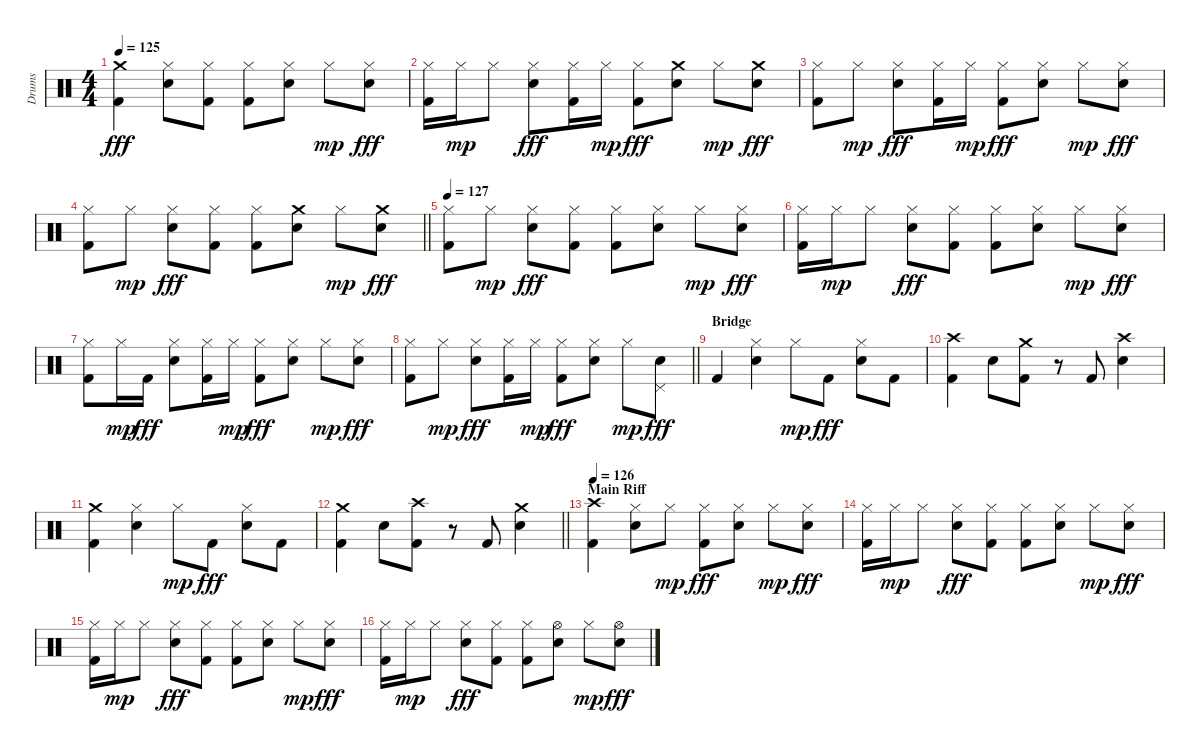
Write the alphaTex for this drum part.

\track ("Drums" "Drums") {instrument percussion}
\staff {score}
\articulation defaults
\ts (4 4)
\tempo 125
\clef neutral
\ks c
("Crash medium (hit)" "Kick (hit) 2").4{dy fff} ("Hi-Hat (closed)" "Electric Snare (hit)").8 ("Hi-Hat (closed)" "Kick (hit) 2").8 ("Hi-Hat (closed)" "Kick (hit) 2").8 ("Hi-Hat (closed)" "Electric Snare (hit)").8 "Hi-Hat (closed)".8{dy mp} ("Hi-Hat (closed)" "Electric Snare (hit)").8{dy fff} |
("Hi-Hat (closed)" "Kick (hit) 2").16 "Hi-Hat (closed)".16{dy mp} "Hi-Hat (closed)".8 ("Hi-Hat (closed)" "Electric Snare (hit)").8{dy fff} ("Hi-Hat (closed)" "Kick (hit) 2").16 "Hi-Hat (closed)".16{dy mp} ("Hi-Hat (closed)" "Kick (hit) 2").8{dy fff} ("Crash medium (hit)" "Electric Snare (hit)").8 "Hi-Hat (closed)".8{dy mp} ("Crash medium (hit)" "Electric Snare (hit)").8{dy fff} |
("Hi-Hat (closed)" "Kick (hit) 2").8 "Hi-Hat (closed)".8{dy mp} ("Hi-Hat (closed)" "Electric Snare (hit)").8{dy fff} ("Hi-Hat (closed)" "Kick (hit) 2").16 "Hi-Hat (closed)".16{dy mp} ("Hi-Hat (closed)" "Kick (hit) 2").8{dy fff} ("Hi-Hat (closed)" "Electric Snare (hit)").8 "Hi-Hat (closed)".8{dy mp} ("Hi-Hat (closed)" "Electric Snare (hit)").8{dy fff} |
\barLineRight lightlight
("Hi-Hat (closed)" "Kick (hit) 2").8 "Hi-Hat (closed)".8{dy mp} ("Hi-Hat (closed)" "Electric Snare (hit)").8{dy fff} ("Hi-Hat (closed)" "Kick (hit) 2").8 ("Hi-Hat (closed)" "Kick (hit) 2").8 ("Crash medium (hit)" "Electric Snare (hit)").8 "Hi-Hat (closed)".8{dy mp} ("Crash medium (hit)" "Electric Snare (hit)").8{dy fff} |
\tempo 127
("Hi-Hat (closed)" "Kick (hit) 2").8 "Hi-Hat (closed)".8{dy mp} ("Hi-Hat (closed)" "Electric Snare (hit)").8{dy fff} ("Hi-Hat (closed)" "Kick (hit) 2").8 ("Hi-Hat (closed)" "Kick (hit) 2").8 ("Hi-Hat (closed)" "Electric Snare (hit)").8 "Hi-Hat (closed)".8{dy mp} ("Hi-Hat (closed)" "Electric Snare (hit)").8{dy fff} |
("Hi-Hat (closed)" "Kick (hit) 2").16 "Hi-Hat (closed)".16{dy mp} "Hi-Hat (closed)".8 ("Hi-Hat (closed)" "Electric Snare (hit)").8{dy fff} ("Hi-Hat (closed)" "Kick (hit) 2").8 ("Hi-Hat (closed)" "Kick (hit) 2").8 ("Hi-Hat (closed)" "Electric Snare (hit)").8 "Hi-Hat (closed)".8{dy mp} ("Hi-Hat (closed)" "Electric Snare (hit)").8{dy fff} |
("Hi-Hat (closed)" "Kick (hit) 2").8 "Hi-Hat (closed)".16{dy mp} "Kick (hit) 2".16{dy fff} ("Hi-Hat (closed)" "Electric Snare (hit)").8 ("Hi-Hat (closed)" "Kick (hit) 2").16 "Hi-Hat (closed)".16{dy mp} ("Hi-Hat (closed)" "Kick (hit) 2").8{dy fff} ("Hi-Hat (closed)" "Electric Snare (hit)").8 "Hi-Hat (closed)".8{dy mp} ("Hi-Hat (closed)" "Electric Snare (hit)").8{dy fff} |
\barLineRight lightlight
("Hi-Hat (closed)" "Kick (hit) 2").8 "Hi-Hat (closed)".8{dy mp} ("Hi-Hat (closed)" "Electric Snare (hit)").8{dy fff} ("Hi-Hat (closed)" "Kick (hit) 2").16 "Hi-Hat (closed)".16{dy mp} ("Hi-Hat (closed)" "Kick (hit) 2").8{dy fff} ("Hi-Hat (closed)" "Electric Snare (hit)").8 "Hi-Hat (closed)".8{dy mp} ("Pedal Hi-Hat (hit)" "Electric Snare (hit)").8{dy fff} |
\section ("" "Bridge")
"Kick (hit) 2".4 ("Hi-Hat (closed)" "Electric Snare (hit)").4 "Hi-Hat (closed)".8{dy mp} "Kick (hit) 2".8{dy fff} ("Hi-Hat (closed)" "Electric Snare (hit)").8 "Kick (hit) 2".8 |
("Crash high (hit)" "Kick (hit) 2").4 "Electric Snare (hit)".8 ("Crash medium (hit)" "Kick (hit) 2").8 r.8 "Kick (hit) 2".8 ("Crash high (hit)" "Electric Snare (hit)").4 |
("Crash medium (hit)" "Kick (hit) 2").4 ("Hi-Hat (closed)" "Electric Snare (hit)").4 "Hi-Hat (closed)".8{dy mp} "Kick (hit) 2".8{dy fff} ("Hi-Hat (closed)" "Electric Snare (hit)").8 "Kick (hit) 2".8 |
\barLineRight lightlight
("Crash medium (hit)" "Kick (hit) 2").4 "Electric Snare (hit)".8 ("Crash high (hit)" "Kick (hit) 2").8 r.8 "Kick (hit) 2".8 ("Crash medium (hit)" "Electric Snare (hit)").4 |
\section ("" "Main Riff")
\tempo 126
("Crash high (hit)" "Kick (hit) 2").4 ("Hi-Hat (closed)" "Electric Snare (hit)").8 "Hi-Hat (closed)".8{dy mp} ("Hi-Hat (closed)" "Kick (hit) 2").8{dy fff} ("Hi-Hat (closed)" "Electric Snare (hit)").8 "Hi-Hat (closed)".8{dy mp} ("Hi-Hat (closed)" "Electric Snare (hit)").8{dy fff} |
("Hi-Hat (closed)" "Kick (hit) 2").16 "Hi-Hat (closed)".16{dy mp} "Hi-Hat (closed)".8 ("Hi-Hat (closed)" "Electric Snare (hit)").8{dy fff} ("Hi-Hat (closed)" "Kick (hit) 2").8 ("Hi-Hat (closed)" "Kick (hit) 2").8 ("Hi-Hat (closed)" "Electric Snare (hit)").8 "Hi-Hat (closed)".8{dy mp} ("Hi-Hat (closed)" "Electric Snare (hit)").8{dy fff} |
("Hi-Hat (closed)" "Kick (hit) 2").16 "Hi-Hat (closed)".16{dy mp} "Hi-Hat (closed)".8 ("Hi-Hat (closed)" "Electric Snare (hit)").8{dy fff} ("Hi-Hat (closed)" "Kick (hit) 2").8 ("Hi-Hat (closed)" "Kick (hit) 2").8 ("Hi-Hat (closed)" "Electric Snare (hit)").8 "Hi-Hat (closed)".8{dy mp} ("Hi-Hat (closed)" "Electric Snare (hit)").8{dy fff} |
("Hi-Hat (closed)" "Kick (hit) 2").16 "Hi-Hat (closed)".16{dy mp} "Hi-Hat (closed)".8 ("Hi-Hat (closed)" "Electric Snare (hit)").8{dy fff} ("Hi-Hat (closed)" "Kick (hit) 2").8 ("Hi-Hat (closed)" "Kick (hit) 2").8 ("Hi-Hat (open)" "Electric Snare (hit)").8 "Hi-Hat (closed)".8{dy mp} ("Hi-Hat (open)" "Electric Snare (hit)").8{dy fff}
